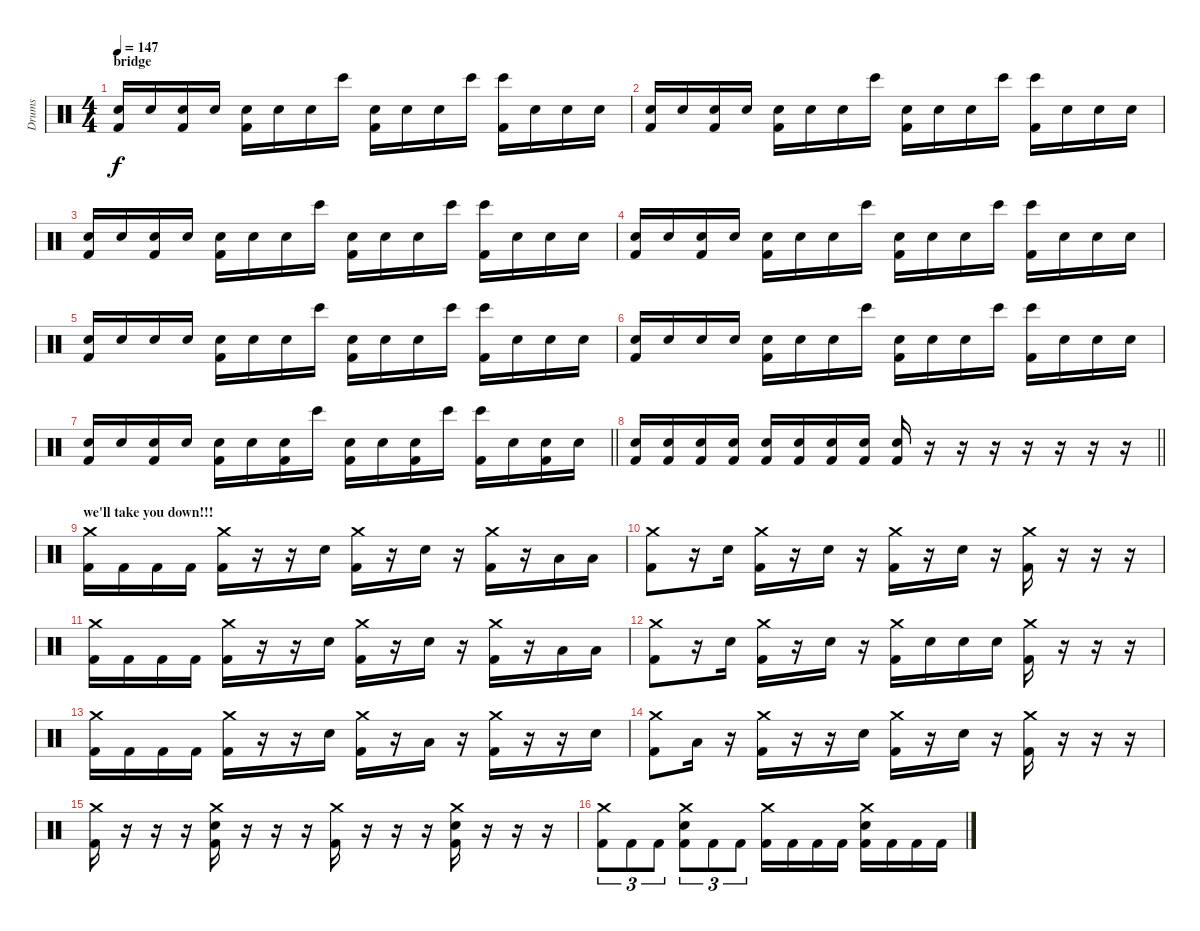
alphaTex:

\track ("Drums" "Drums") {instrument percussion}
\staff {score}
\articulation defaults
\ts (4 4)
\section ("" "bridge")
\tempo 147
\clef neutral
\ks c
("Electric Snare (hit)" "Kick (hit) 2").16{dy f} "Electric Snare (hit)".16 ("Electric Snare (hit)" "Kick (hit) 2").16 "Electric Snare (hit)".16 ("Electric Snare (hit)" "Kick (hit) 2").16 "Electric Snare (hit)".16 "Electric Snare (hit)".16 "Bongo High (hit)".16 ("Electric Snare (hit)" "Kick (hit) 2").16 "Electric Snare (hit)".16 "Electric Snare (hit)".16 "Bongo High (hit)".16 ("Bongo High (hit)" "Kick (hit) 2").16 "Electric Snare (hit)".16 "Electric Snare (hit)".16 "Electric Snare (hit)".16 |
("Electric Snare (hit)" "Kick (hit) 2").16 "Electric Snare (hit)".16 ("Electric Snare (hit)" "Kick (hit) 2").16 "Electric Snare (hit)".16 ("Electric Snare (hit)" "Kick (hit) 2").16 "Electric Snare (hit)".16 "Electric Snare (hit)".16 "Bongo High (hit)".16 ("Electric Snare (hit)" "Kick (hit) 2").16 "Electric Snare (hit)".16 "Electric Snare (hit)".16 "Bongo High (hit)".16 ("Bongo High (hit)" "Kick (hit) 2").16 "Electric Snare (hit)".16 "Electric Snare (hit)".16 "Electric Snare (hit)".16 |
("Electric Snare (hit)" "Kick (hit) 2").16 "Electric Snare (hit)".16 ("Electric Snare (hit)" "Kick (hit) 2").16 "Electric Snare (hit)".16 ("Electric Snare (hit)" "Kick (hit) 2").16 "Electric Snare (hit)".16 "Electric Snare (hit)".16 "Bongo High (hit)".16 ("Electric Snare (hit)" "Kick (hit) 2").16 "Electric Snare (hit)".16 "Electric Snare (hit)".16 "Bongo High (hit)".16 ("Bongo High (hit)" "Kick (hit) 2").16 "Electric Snare (hit)".16 "Electric Snare (hit)".16 "Electric Snare (hit)".16 |
("Electric Snare (hit)" "Kick (hit) 2").16 "Electric Snare (hit)".16 ("Electric Snare (hit)" "Kick (hit) 2").16 "Electric Snare (hit)".16 ("Electric Snare (hit)" "Kick (hit) 2").16 "Electric Snare (hit)".16 "Electric Snare (hit)".16 "Bongo High (hit)".16 ("Electric Snare (hit)" "Kick (hit) 2").16 "Electric Snare (hit)".16 "Electric Snare (hit)".16 "Bongo High (hit)".16 ("Bongo High (hit)" "Kick (hit) 2").16 "Electric Snare (hit)".16 "Electric Snare (hit)".16 "Electric Snare (hit)".16 |
("Electric Snare (hit)" "Kick (hit) 2").16 "Electric Snare (hit)".16 "Electric Snare (hit)".16 "Electric Snare (hit)".16 ("Electric Snare (hit)" "Kick (hit) 2").16 "Electric Snare (hit)".16 "Electric Snare (hit)".16 "Bongo High (hit)".16 ("Electric Snare (hit)" "Kick (hit) 2").16 "Electric Snare (hit)".16 "Electric Snare (hit)".16 "Bongo High (hit)".16 ("Bongo High (hit)" "Kick (hit) 2").16 "Electric Snare (hit)".16 "Electric Snare (hit)".16 "Electric Snare (hit)".16 |
("Electric Snare (hit)" "Kick (hit) 2").16 "Electric Snare (hit)".16 "Electric Snare (hit)".16 "Electric Snare (hit)".16 ("Electric Snare (hit)" "Kick (hit) 2").16 "Electric Snare (hit)".16 "Electric Snare (hit)".16 "Bongo High (hit)".16 ("Electric Snare (hit)" "Kick (hit) 2").16 "Electric Snare (hit)".16 "Electric Snare (hit)".16 "Bongo High (hit)".16 ("Bongo High (hit)" "Kick (hit) 2").16 "Electric Snare (hit)".16 "Electric Snare (hit)".16 "Electric Snare (hit)".16 |
\barLineRight lightlight
("Electric Snare (hit)" "Kick (hit) 2").16 "Electric Snare (hit)".16 ("Electric Snare (hit)" "Kick (hit) 2").16 "Electric Snare (hit)".16 ("Electric Snare (hit)" "Kick (hit) 2").16 "Electric Snare (hit)".16 ("Electric Snare (hit)" "Kick (hit) 2").16 "Bongo High (hit)".16 ("Electric Snare (hit)" "Kick (hit) 2").16 "Electric Snare (hit)".16 ("Electric Snare (hit)" "Kick (hit) 2").16 "Bongo High (hit)".16 ("Bongo High (hit)" "Kick (hit) 2").16 "Electric Snare (hit)".16 ("Electric Snare (hit)" "Kick (hit) 2").16 "Electric Snare (hit)".16 |
\barLineRight lightlight
("Electric Snare (hit)" "Kick (hit) 2").16 ("Electric Snare (hit)" "Kick (hit) 2").16 ("Electric Snare (hit)" "Kick (hit) 2").16 ("Electric Snare (hit)" "Kick (hit) 2").16 ("Electric Snare (hit)" "Kick (hit) 2").16 ("Electric Snare (hit)" "Kick (hit) 2").16 ("Electric Snare (hit)" "Kick (hit) 2").16 ("Electric Snare (hit)" "Kick (hit) 2").16 ("Electric Snare (hit)" "Kick (hit) 2").16 r.16 r.16 r.16 r.16 r.16 r.16 r.16 |
\section ("" "we'll take you down!!!")
("Crash medium (hit)" "Kick (hit) 2").16 "Kick (hit) 2".16 "Kick (hit) 2".16 "Kick (hit) 2".16 ("Crash medium (hit)" "Kick (hit) 2").16 r.16 r.16 "Electric Snare (hit)".16 ("Crash medium (hit)" "Kick (hit) 2").16 r.16 "Electric Snare (hit)".16 r.16 ("Crash medium (hit)" "Kick (hit) 2").16 r.16 "Low Tom (hit)".16 "Low Tom (hit)".16 |
("Crash medium (hit)" "Kick (hit) 2").8 r.16 "Electric Snare (hit)".16 ("Crash medium (hit)" "Kick (hit) 2").16 r.16 "Electric Snare (hit)".16 r.16 ("Crash medium (hit)" "Kick (hit) 2").16 r.16 "Electric Snare (hit)".16 r.16 ("Crash medium (hit)" "Kick (hit) 2").16 r.16 r.16 r.16 |
("Crash medium (hit)" "Kick (hit) 2").16 "Kick (hit) 2".16 "Kick (hit) 2".16 "Kick (hit) 2".16 ("Crash medium (hit)" "Kick (hit) 2").16 r.16 r.16 "Electric Snare (hit)".16 ("Crash medium (hit)" "Kick (hit) 2").16 r.16 "Electric Snare (hit)".16 r.16 ("Crash medium (hit)" "Kick (hit) 2").16 r.16 "Low Tom (hit)".16 "Low Tom (hit)".16 |
("Crash medium (hit)" "Kick (hit) 2").8 r.16 "Electric Snare (hit)".16 ("Crash medium (hit)" "Kick (hit) 2").16 r.16 "Electric Snare (hit)".16 r.16 ("Crash medium (hit)" "Kick (hit) 2").16 "Electric Snare (hit)".16 "Electric Snare (hit)".16 "Electric Snare (hit)".16 ("Crash medium (hit)" "Kick (hit) 2").16 r.16 r.16 r.16 |
("Crash medium (hit)" "Kick (hit) 2").16 "Kick (hit) 2".16 "Kick (hit) 2".16 "Kick (hit) 2".16 ("Crash medium (hit)" "Kick (hit) 2").16 r.16 r.16 "Electric Snare (hit)".16 ("Crash medium (hit)" "Kick (hit) 2").16 r.16 "Low Tom (hit)".16 r.16 ("Crash medium (hit)" "Kick (hit) 2").16 r.16 r.16 "Electric Snare (hit)".16 |
("Crash medium (hit)" "Kick (hit) 2").8 "Low Tom (hit)".16 r.16 ("Crash medium (hit)" "Kick (hit) 2").16 r.16 r.16 "Electric Snare (hit)".16 ("Crash medium (hit)" "Kick (hit) 2").16 r.16 "Electric Snare (hit)".16 r.16 ("Crash medium (hit)" "Kick (hit) 2").16 r.16 r.16 r.16 |
("Crash medium (hit)" "Kick (hit) 2").16 r.16 r.16 r.16 ("Crash medium (hit)" "Electric Snare (hit)" "Kick (hit) 2").16 r.16 r.16 r.16 ("Crash medium (hit)" "Kick (hit) 2").16 r.16 r.16 r.16 ("Crash medium (hit)" "Electric Snare (hit)" "Kick (hit) 2").16 r.16 r.16 r.16 |
("Crash medium (hit)" "Kick (hit) 2").8{tu (3 2)} "Kick (hit) 2".8{tu (3 2)} "Kick (hit) 2".8{tu (3 2)} ("Crash medium (hit)" "Electric Snare (hit)" "Kick (hit) 2").8{tu (3 2)} "Kick (hit) 2".8{tu (3 2)} "Kick (hit) 2".8{tu (3 2)} ("Crash medium (hit)" "Kick (hit) 2").16 "Kick (hit) 2".16 "Kick (hit) 2".16 "Kick (hit) 2".16 ("Crash medium (hit)" "Electric Snare (hit)" "Kick (hit) 2").16 "Kick (hit) 2".16 "Kick (hit) 2".16 "Kick (hit) 2".16
